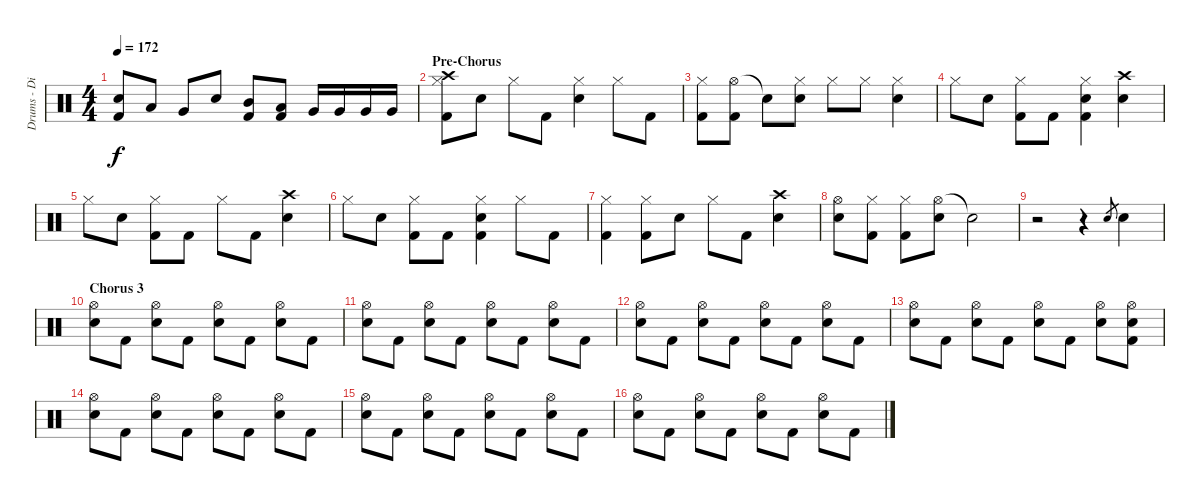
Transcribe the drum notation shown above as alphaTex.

\track ("Drums - Dino Campanella" "Drums - Di") {instrument percussion}
\staff {score}
\articulation defaults
\ts (4 4)
\tempo 172
\clef neutral
\ks c
("Electric Snare (hit)" "Kick (hit) 2").8{dy f} "Low Tom (hit)".8 "Very Low Tom (hit)".8 "Electric Snare (hit)".8 ("Mid Tom (hit)" "Kick (hit) 2").8 ("Low Tom (hit)" "Kick (hit) 2").8 "Very Low Tom (hit)".16 "Very Low Tom (hit)".16 "Very Low Tom (hit)".16 "Very Low Tom (hit)".16 |
\section ("" "Pre-Chorus")
("Crash high (hit)" "Hi-Hat (closed)" "Kick (hit) 2").8 "Electric Snare (hit)".8 "Hi-Hat (closed)".8 "Kick (hit) 2".8 ("Hi-Hat (closed)" "Electric Snare (hit)").4 "Hi-Hat (closed)".8 "Kick (hit) 2".8 |
("Hi-Hat (closed)" "Kick (hit) 2").8 ("Hi-Hat (open)" "Kick (hit) 2").8 "Snare (hit)"{t}.8 ("Hi-Hat (closed)" "Electric Snare (hit)").8 "Hi-Hat (closed)".8 "Hi-Hat (closed)".8 ("Hi-Hat (closed)" "Electric Snare (hit)").4 |
"Hi-Hat (closed)".8 "Electric Snare (hit)".8 ("Hi-Hat (closed)" "Kick (hit) 2").8 "Kick (hit) 2".8 ("Hi-Hat (closed)" "Electric Snare (hit)" "Kick (hit) 2").4 ("Crash high (hit)" "Electric Snare (hit)").4 |
"Hi-Hat (closed)".8 "Electric Snare (hit)".8 ("Hi-Hat (closed)" "Kick (hit) 2").8 "Kick (hit) 2".8 "Hi-Hat (closed)".8 "Kick (hit) 2".8 ("Crash high (hit)" "Electric Snare (hit)").4 |
"Hi-Hat (closed)".8 "Electric Snare (hit)".8 ("Hi-Hat (closed)" "Kick (hit) 2").8 "Kick (hit) 2".8 ("Hi-Hat (closed)" "Electric Snare (hit)" "Kick (hit) 2").4 "Hi-Hat (closed)".8 "Kick (hit) 2".8 |
("Hi-Hat (closed)" "Kick (hit) 2").4 ("Hi-Hat (closed)" "Kick (hit) 2").8 "Electric Snare (hit)".8 "Hi-Hat (closed)".8 "Kick (hit) 2".8 ("Crash high (hit)" "Electric Snare (hit)").4 |
("Hi-Hat (open)" "Electric Snare (hit)").8 ("Hi-Hat (closed)" "Kick (hit) 2").8 ("Hi-Hat (closed)" "Kick (hit) 2").8 ("Hi-Hat (open)" "Electric Snare (hit)").8 "Snare (hit)"{t}.2 |
r.2 r.4 "Electric Snare (hit)".8{gr} "Electric Snare (hit)".4 |
\section ("" "Chorus 3")
("Hi-Hat (open)" "Electric Snare (hit)").8 "Kick (hit) 2".8 ("Hi-Hat (open)" "Electric Snare (hit)").8 "Kick (hit) 2".8 ("Hi-Hat (open)" "Electric Snare (hit)").8 "Kick (hit) 2".8 ("Hi-Hat (open)" "Electric Snare (hit)").8 "Kick (hit) 2".8 |
("Hi-Hat (open)" "Electric Snare (hit)").8 "Kick (hit) 2".8 ("Hi-Hat (open)" "Electric Snare (hit)").8 "Kick (hit) 2".8 ("Hi-Hat (open)" "Electric Snare (hit)").8 "Kick (hit) 2".8 ("Hi-Hat (open)" "Electric Snare (hit)").8 "Kick (hit) 2".8 |
("Hi-Hat (open)" "Electric Snare (hit)").8 "Kick (hit) 2".8 ("Hi-Hat (open)" "Electric Snare (hit)").8 "Kick (hit) 2".8 ("Hi-Hat (open)" "Electric Snare (hit)").8 "Kick (hit) 2".8 ("Hi-Hat (open)" "Electric Snare (hit)").8 "Kick (hit) 2".8 |
("Hi-Hat (open)" "Electric Snare (hit)").8 "Kick (hit) 2".8 ("Hi-Hat (open)" "Electric Snare (hit)").8 "Kick (hit) 2".8 ("Hi-Hat (open)" "Electric Snare (hit)").8 "Kick (hit) 2".8 ("Hi-Hat (open)" "Electric Snare (hit)").8 ("Hi-Hat (open)" "Electric Snare (hit)" "Kick (hit) 2").8 |
("Hi-Hat (open)" "Electric Snare (hit)").8 "Kick (hit) 2".8 ("Hi-Hat (open)" "Electric Snare (hit)").8 "Kick (hit) 2".8 ("Hi-Hat (open)" "Electric Snare (hit)").8 "Kick (hit) 2".8 ("Hi-Hat (open)" "Electric Snare (hit)").8 "Kick (hit) 2".8 |
("Hi-Hat (open)" "Electric Snare (hit)").8 "Kick (hit) 2".8 ("Hi-Hat (open)" "Electric Snare (hit)").8 "Kick (hit) 2".8 ("Hi-Hat (open)" "Electric Snare (hit)").8 "Kick (hit) 2".8 ("Hi-Hat (open)" "Electric Snare (hit)").8 "Kick (hit) 2".8 |
("Hi-Hat (open)" "Electric Snare (hit)").8 "Kick (hit) 2".8 ("Hi-Hat (open)" "Electric Snare (hit)").8 "Kick (hit) 2".8 ("Hi-Hat (open)" "Electric Snare (hit)").8 "Kick (hit) 2".8 ("Hi-Hat (open)" "Electric Snare (hit)").8 "Kick (hit) 2".8
